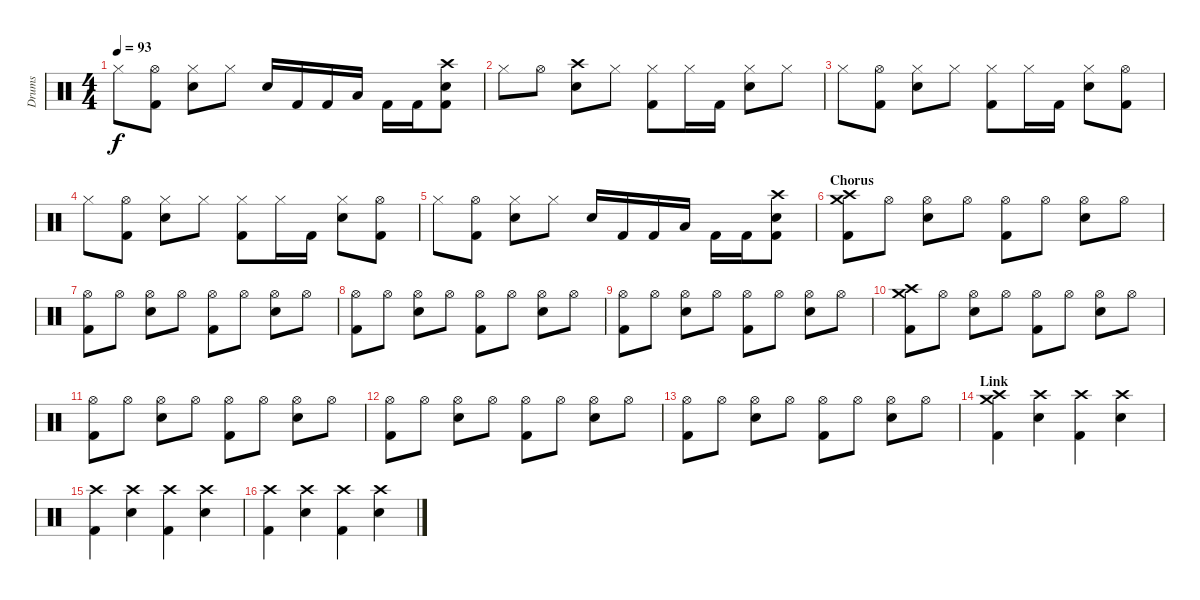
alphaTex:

\track ("Drums" "Drums") {instrument percussion}
\staff {score}
\articulation defaults
\ts (4 4)
\tempo 93
\clef neutral
\ks c "Hi-Hat (closed)".8{dy f}
("Hi-Hat (open)" "Kick (hit) 2").8 ("Hi-Hat (closed)" "Electric Snare (hit)").8 "Hi-Hat (closed)".8 "Electric Snare (hit)".16 "Kick (hit) 2".16 "Kick (hit) 2".16 "Low Tom (hit)".16 "Kick (hit) 2".16 "Kick (hit) 2".16 ("Crash high (hit)" "Electric Snare (hit)" "Kick (hit) 2").8 |
"Hi-Hat (closed)".8 "Hi-Hat (open)".8 ("Crash high (hit)" "Electric Snare (hit)").8 "Hi-Hat (closed)".8 ("Hi-Hat (closed)" "Kick (hit) 2").8 "Hi-Hat (closed)".16 "Kick (hit) 2".16 ("Hi-Hat (closed)" "Electric Snare (hit)").8 "Hi-Hat (closed)".8 |
"Hi-Hat (closed)".8 ("Hi-Hat (open)" "Kick (hit) 2").8 ("Hi-Hat (closed)" "Electric Snare (hit)").8 "Hi-Hat (closed)".8 ("Hi-Hat (closed)" "Kick (hit) 2").8 "Hi-Hat (closed)".16 "Kick (hit) 2".16 ("Hi-Hat (closed)" "Electric Snare (hit)").8 ("Hi-Hat (open)" "Kick (hit) 2").8 |
"Hi-Hat (closed)".8 ("Hi-Hat (open)" "Kick (hit) 2").8 ("Hi-Hat (closed)" "Electric Snare (hit)").8 "Hi-Hat (closed)".8 ("Hi-Hat (closed)" "Kick (hit) 2").8 "Hi-Hat (closed)".16 "Kick (hit) 2".16 ("Hi-Hat (closed)" "Electric Snare (hit)").8 ("Hi-Hat (open)" "Kick (hit) 2").8 |
"Hi-Hat (closed)".8 ("Hi-Hat (open)" "Kick (hit) 2").8 ("Hi-Hat (closed)" "Electric Snare (hit)").8 "Hi-Hat (closed)".8 "Electric Snare (hit)".16 "Kick (hit) 2".16 "Kick (hit) 2".16 "Low Tom (hit)".16 "Kick (hit) 2".16 "Kick (hit) 2".16 ("Crash high (hit)" "Electric Snare (hit)" "Kick (hit) 2").8 |
\section ("" "Chorus")
("Crash high (hit)" "Crash medium (hit)" "Kick (hit) 2").8 "Hi-Hat (open)".8 ("Hi-Hat (open)" "Electric Snare (hit)").8 "Hi-Hat (open)".8 ("Hi-Hat (open)" "Kick (hit) 2").8 "Hi-Hat (open)".8 ("Hi-Hat (open)" "Electric Snare (hit)").8 "Hi-Hat (open)".8 |
("Hi-Hat (open)" "Kick (hit) 2").8 "Hi-Hat (open)".8 ("Hi-Hat (open)" "Electric Snare (hit)").8 "Hi-Hat (open)".8 ("Hi-Hat (open)" "Kick (hit) 2").8 "Hi-Hat (open)".8 ("Hi-Hat (open)" "Electric Snare (hit)").8 "Hi-Hat (open)".8 |
("Hi-Hat (open)" "Kick (hit) 2").8 "Hi-Hat (open)".8 ("Hi-Hat (open)" "Electric Snare (hit)").8 "Hi-Hat (open)".8 ("Hi-Hat (open)" "Kick (hit) 2").8 "Hi-Hat (open)".8 ("Hi-Hat (open)" "Electric Snare (hit)").8 "Hi-Hat (open)".8 |
("Hi-Hat (open)" "Kick (hit) 2").8 "Hi-Hat (open)".8 ("Hi-Hat (open)" "Electric Snare (hit)").8 "Hi-Hat (open)".8 ("Hi-Hat (open)" "Kick (hit) 2").8 "Hi-Hat (open)".8 ("Hi-Hat (open)" "Electric Snare (hit)").8 "Hi-Hat (open)".8 |
("Crash high (hit)" "Crash medium (hit)" "Kick (hit) 2").8 "Hi-Hat (open)".8 ("Hi-Hat (open)" "Electric Snare (hit)").8 "Hi-Hat (open)".8 ("Hi-Hat (open)" "Kick (hit) 2").8 "Hi-Hat (open)".8 ("Hi-Hat (open)" "Electric Snare (hit)").8 "Hi-Hat (open)".8 |
("Hi-Hat (open)" "Kick (hit) 2").8 "Hi-Hat (open)".8 ("Hi-Hat (open)" "Electric Snare (hit)").8 "Hi-Hat (open)".8 ("Hi-Hat (open)" "Kick (hit) 2").8 "Hi-Hat (open)".8 ("Hi-Hat (open)" "Electric Snare (hit)").8 "Hi-Hat (open)".8 |
("Hi-Hat (open)" "Kick (hit) 2").8 "Hi-Hat (open)".8 ("Hi-Hat (open)" "Electric Snare (hit)").8 "Hi-Hat (open)".8 ("Hi-Hat (open)" "Kick (hit) 2").8 "Hi-Hat (open)".8 ("Hi-Hat (open)" "Electric Snare (hit)").8 "Hi-Hat (open)".8 |
("Hi-Hat (open)" "Kick (hit) 2").8 "Hi-Hat (open)".8 ("Hi-Hat (open)" "Electric Snare (hit)").8 "Hi-Hat (open)".8 ("Hi-Hat (open)" "Kick (hit) 2").8 "Hi-Hat (open)".8 ("Hi-Hat (open)" "Electric Snare (hit)").8 "Hi-Hat (open)".8 |
\section ("" "Link")
("Crash high (hit)" "Crash medium (hit)" "Kick (hit) 2").4 ("Crash high (hit)" "Electric Snare (hit)").4 ("Crash high (hit)" "Kick (hit) 2").4 ("Crash high (hit)" "Electric Snare (hit)").4 |
("Crash high (hit)" "Kick (hit) 2").4 ("Crash high (hit)" "Electric Snare (hit)").4 ("Crash high (hit)" "Kick (hit) 2").4 ("Crash high (hit)" "Electric Snare (hit)").4 |
("Crash high (hit)" "Kick (hit) 2").4 ("Crash high (hit)" "Electric Snare (hit)").4 ("Crash high (hit)" "Kick (hit) 2").4 ("Crash high (hit)" "Electric Snare (hit)").4
